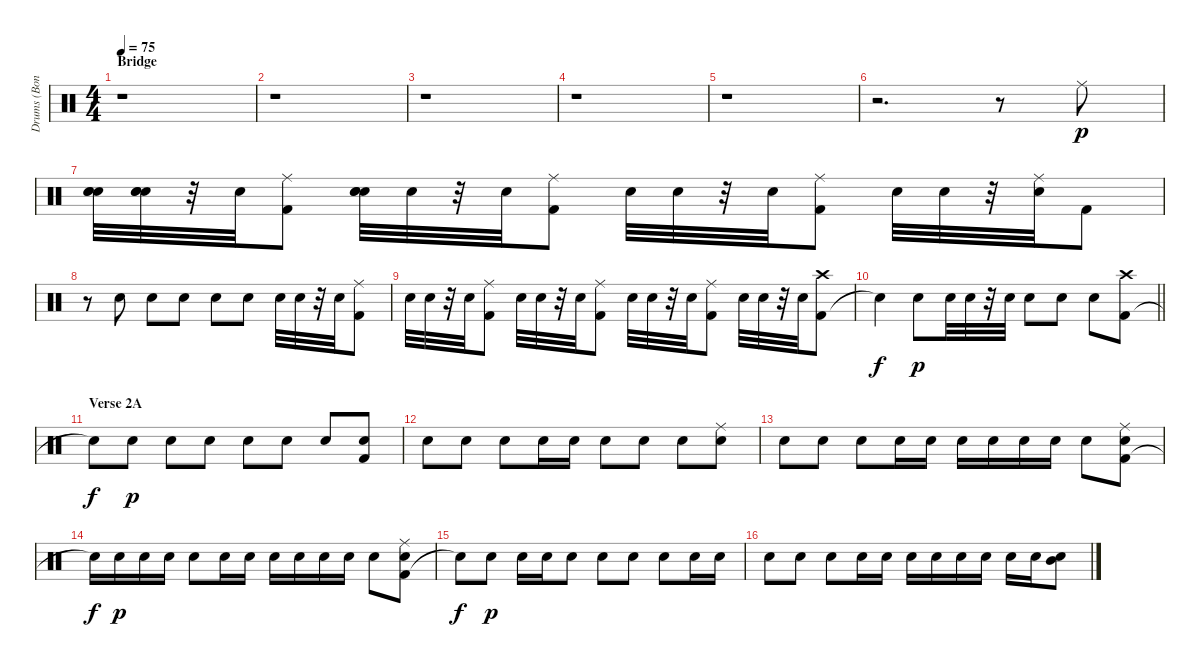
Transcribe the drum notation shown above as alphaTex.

\track ("Drums (Bonham)" "Drums (Bon") {instrument percussion}
\staff {score}
\articulation defaults
\ts (4 4)
\section ("" "Bridge")
\tempo 75
\clef neutral
\ks c
r.1{dy p} |
r.1 |
r.1 |
r.1 |
r.1 |
r.2{d} r.8 "Ride (middle)".8 |
("Snare (hit) 2" "Snare (hit) 2" "Snare (hit) 2").32 ("Snare (hit) 2" "Snare (hit) 2" "Snare (hit) 2").32 r.32 "Snare (hit) 2".32 ("Kick (hit) 2" "Ride (middle)").8 ("Snare (hit) 2" "Snare (hit) 2" "Snare (hit) 2").32 "Snare (hit) 2".32 r.32 "Snare (hit) 2".32 ("Kick (hit) 2" "Ride (middle)").8 "Snare (hit) 2".32 "Snare (hit) 2".32 r.32 "Snare (hit) 2".32 ("Kick (hit) 2" "Ride (middle)").8 "Snare (hit) 2".32 "Snare (hit) 2".32 r.32 ("Snare (hit) 2" "Ride (middle)").32 "Kick (hit) 2".8 |
r.8 "Snare (hit) 2".8 "Snare (hit) 2".8 "Snare (hit) 2".8 "Snare (hit) 2".8 "Snare (hit) 2".8 "Snare (hit) 2".32 "Snare (hit) 2".32 r.32 "Snare (hit) 2".32 ("Kick (hit) 2" "Ride (middle)").8 |
"Snare (hit) 2".32 "Snare (hit) 2".32 r.32 "Snare (hit) 2".32 ("Kick (hit) 2" "Ride (middle)").8 "Snare (hit) 2".32 "Snare (hit) 2".32 r.32 "Snare (hit) 2".32 ("Kick (hit) 2" "Ride (middle)").8 "Snare (hit) 2".32 "Snare (hit) 2".32 r.32 "Snare (hit) 2".32 ("Kick (hit) 2" "Ride (middle)").8 "Snare (hit) 2".32 "Snare (hit) 2".32 r.32 "Snare (hit) 2".32 ("Kick (hit) 2" "Crash high (hit)").8 |
\barLineRight lightlight "Snare (hit)"{t}.4{dy f} "Snare (hit) 2".8{dy p} "Snare (hit) 2".32 "Snare (hit) 2".32
r.32 "Snare (hit) 2".32 "Snare (hit) 2".8 "Snare (hit) 2".8 "Snare (hit) 2".8 ("Kick (hit) 2" "Crash high (hit)").8 |
\section ("" "Verse 2A")
"Snare (hit)"{t}.8{dy f} "Snare (hit) 2".8{dy p} "Snare (hit) 2".8 "Snare (hit) 2".8 "Snare (hit) 2".8 "Snare (hit) 2".8 "Snare (hit) 2".8 ("Kick (hit) 2" "Snare (hit) 2").8 |
"Snare (hit) 2".8 "Snare (hit) 2".8 "Snare (hit) 2".8 "Snare (hit) 2".16 "Snare (hit) 2".16 "Snare (hit) 2".8 "Snare (hit) 2".8 "Snare (hit) 2".8 ("Snare (hit) 2" "Ride (middle)").8 |
"Snare (hit) 2".8 "Snare (hit) 2".8 "Snare (hit) 2".8 "Snare (hit) 2".16 "Snare (hit) 2".16 "Snare (hit) 2".16 "Snare (hit) 2".16 "Snare (hit) 2".16 "Snare (hit) 2".16 "Snare (hit) 2".8 ("Kick (hit) 2" "Snare (hit) 2" "Ride (middle)").8 |
"Snare (hit)"{t}.16{dy f} "Snare (hit) 2".16{dy p} "Snare (hit) 2".16 "Snare (hit) 2".16 "Snare (hit) 2".8 "Snare (hit) 2".16 "Snare (hit) 2".16 "Snare (hit) 2".16 "Snare (hit) 2".16 "Snare (hit) 2".16 "Snare (hit) 2".16 "Snare (hit) 2".8 ("Kick (hit) 2" "Snare (hit) 2" "Ride (middle)").8 |
"Snare (hit)"{t}.8{dy f} "Snare (hit) 2".8{dy p} "Snare (hit) 2".16 "Snare (hit) 2".16 "Snare (hit) 2".8 "Snare (hit) 2".8 "Snare (hit) 2".8 "Snare (hit) 2".8 "Snare (hit) 2".16 "Snare (hit) 2".16 |
"Snare (hit) 2".8 "Snare (hit) 2".8 "Snare (hit) 2".8 "Snare (hit) 2".16 "Snare (hit) 2".16 "Snare (hit) 2".16 "Snare (hit) 2".16 "Snare (hit) 2".16 "Snare (hit) 2".16 "Snare (hit) 2".16 "Snare (hit) 2".16 ("Snare (hit) 2" "Mid Tom (hit)").8
